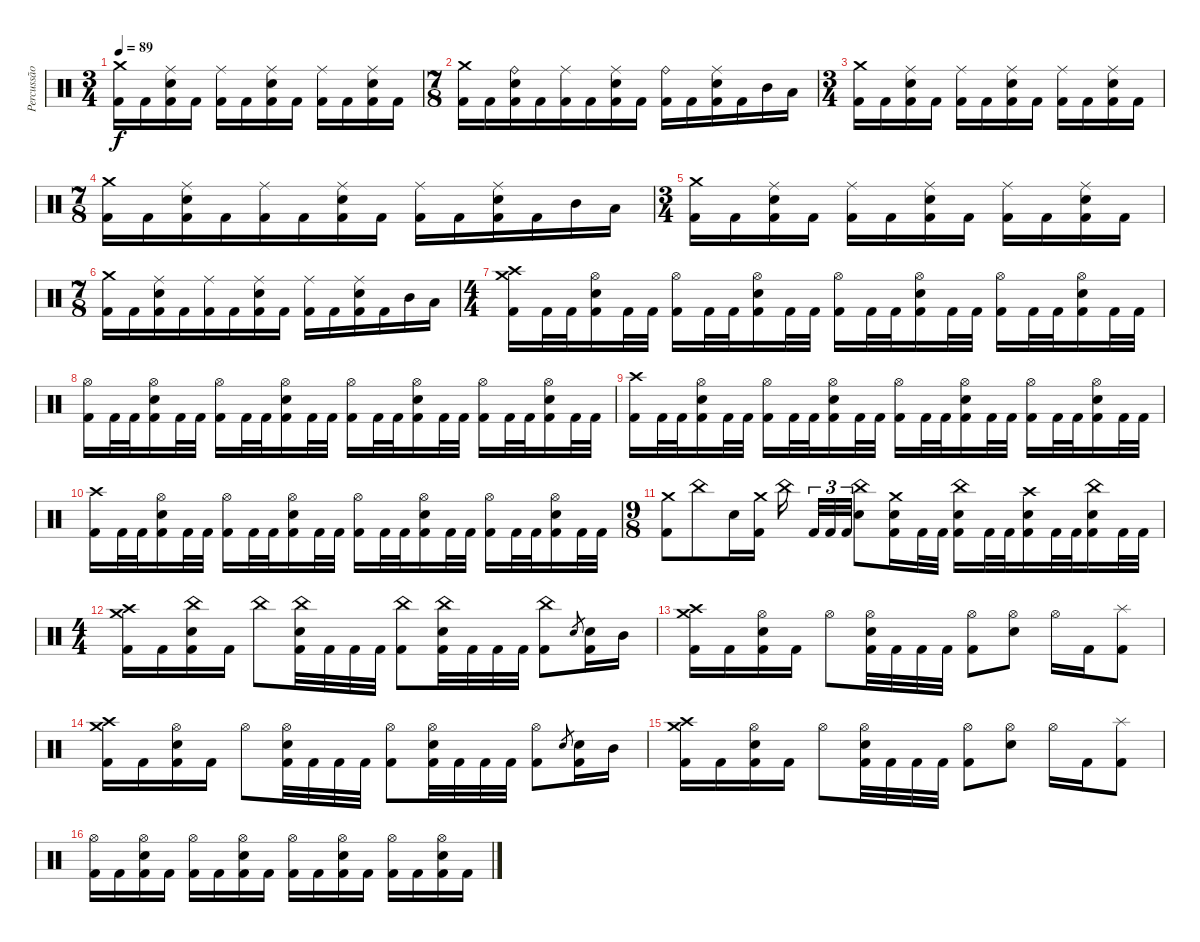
\track ("Percussão" "Percussão") {instrument percussion}
\staff {score}
\articulation defaults
\ts (3 4)
\tempo 89
\clef neutral
\ks c
("Crash medium (hit)" "Kick (hit) 2").16{dy f} "Kick (hit) 2".16 ("Ride (middle)" "Snare (hit) 2" "Kick (hit) 2").16 "Kick (hit) 2".16 ("Ride (middle)" "Kick (hit) 2").16 "Kick (hit) 2".16 ("Ride (middle)" "Snare (hit) 2" "Kick (hit) 2").16 "Kick (hit) 2".16 ("Ride (middle)" "Kick (hit) 2").16 "Kick (hit) 2".16 ("Ride (middle)" "Snare (hit) 2" "Kick (hit) 2").16 "Kick (hit) 2".16 |
\ts (7 8)
("Crash medium (hit)" "Kick (hit) 2").16 "Kick (hit) 2".16 ("Ride (bell)" "Snare (hit) 2" "Kick (hit) 2").16 "Kick (hit) 2".16 ("Ride (middle)" "Kick (hit) 2").16 "Kick (hit) 2".16 ("Ride (middle)" "Snare (hit) 2" "Kick (hit) 2").16 "Kick (hit) 2".16 ("Ride (bell)" "Kick (hit) 2").16 "Kick (hit) 2".16 ("Ride (middle)" "Snare (hit) 2" "Kick (hit) 2").16 "Kick (hit) 2".16 "Mid Tom (hit)".16 "Low Tom (hit)".16 |
\ts (3 4)
("Crash medium (hit)" "Kick (hit) 2").16 "Kick (hit) 2".16 ("Ride (middle)" "Snare (hit) 2" "Kick (hit) 2").16 "Kick (hit) 2".16 ("Ride (middle)" "Kick (hit) 2").16 "Kick (hit) 2".16 ("Ride (middle)" "Snare (hit) 2" "Kick (hit) 2").16 "Kick (hit) 2".16 ("Ride (middle)" "Kick (hit) 2").16 "Kick (hit) 2".16 ("Ride (middle)" "Snare (hit) 2" "Kick (hit) 2").16 "Kick (hit) 2".16 |
\ts (7 8)
("Crash medium (hit)" "Kick (hit) 2").16 "Kick (hit) 2".16 ("Ride (middle)" "Snare (hit) 2" "Kick (hit) 2").16 "Kick (hit) 2".16 ("Ride (middle)" "Kick (hit) 2").16 "Kick (hit) 2".16 ("Ride (middle)" "Snare (hit) 2" "Kick (hit) 2").16 "Kick (hit) 2".16 ("Ride (middle)" "Kick (hit) 2").16 "Kick (hit) 2".16 ("Ride (middle)" "Snare (hit) 2" "Kick (hit) 2").16 "Kick (hit) 2".16 "Mid Tom (hit)".16 "Low Tom (hit)".16 |
\ts (3 4)
("Crash medium (hit)" "Kick (hit) 2").16 "Kick (hit) 2".16 ("Ride (middle)" "Snare (hit) 2" "Kick (hit) 2").16 "Kick (hit) 2".16 ("Ride (middle)" "Kick (hit) 2").16 "Kick (hit) 2".16 ("Ride (middle)" "Snare (hit) 2" "Kick (hit) 2").16 "Kick (hit) 2".16 ("Ride (middle)" "Kick (hit) 2").16 "Kick (hit) 2".16 ("Ride (middle)" "Snare (hit) 2" "Kick (hit) 2").16 "Kick (hit) 2".16 |
\ts (7 8)
("Crash medium (hit)" "Kick (hit) 2").16 "Kick (hit) 2".16 ("Ride (middle)" "Snare (hit) 2" "Kick (hit) 2").16 "Kick (hit) 2".16 ("Ride (middle)" "Kick (hit) 2").16 "Kick (hit) 2".16 ("Ride (middle)" "Snare (hit) 2" "Kick (hit) 2").16 "Kick (hit) 2".16 ("Ride (middle)" "Kick (hit) 2").16 "Kick (hit) 2".16 ("Ride (middle)" "Snare (hit) 2" "Kick (hit) 2").16 "Kick (hit) 2".16 "Mid Tom (hit)".16 "Low Tom (hit)".16 |
\ts (4 4)
("Crash high (hit)" "Crash medium (hit)" "Kick (hit) 2").16 "Kick (hit) 2".32 "Kick (hit) 2".32 ("Hi-Hat (open)" "Snare (hit) 2" "Kick (hit) 2").16 "Kick (hit) 2".32 "Kick (hit) 2".32 ("Hi-Hat (open)" "Kick (hit) 2").16 "Kick (hit) 2".32 "Kick (hit) 2".32 ("Hi-Hat (open)" "Snare (hit) 2" "Kick (hit) 2").16 "Kick (hit) 2".32 "Kick (hit) 2".32 ("Hi-Hat (open)" "Kick (hit) 2").16 "Kick (hit) 2".32 "Kick (hit) 2".32 ("Hi-Hat (open)" "Snare (hit) 2" "Kick (hit) 2").16 "Kick (hit) 2".32 "Kick (hit) 2".32 ("Hi-Hat (open)" "Kick (hit) 2").16 "Kick (hit) 2".32 "Kick (hit) 2".32 ("Hi-Hat (open)" "Snare (hit) 2" "Kick (hit) 2").16 "Kick (hit) 2".32 "Kick (hit) 2".32 |
("Hi-Hat (open)" "Kick (hit) 2").16 "Kick (hit) 2".32 "Kick (hit) 2".32 ("Hi-Hat (open)" "Snare (hit) 2" "Kick (hit) 2").16 "Kick (hit) 2".32 "Kick (hit) 2".32 ("Hi-Hat (open)" "Kick (hit) 2").16 "Kick (hit) 2".32 "Kick (hit) 2".32 ("Hi-Hat (open)" "Snare (hit) 2" "Kick (hit) 2").16 "Kick (hit) 2".32 "Kick (hit) 2".32 ("Hi-Hat (open)" "Kick (hit) 2").16 "Kick (hit) 2".32 "Kick (hit) 2".32 ("Hi-Hat (open)" "Snare (hit) 2" "Kick (hit) 2").16 "Kick (hit) 2".32 "Kick (hit) 2".32 ("Hi-Hat (open)" "Kick (hit) 2").16 "Kick (hit) 2".32 "Kick (hit) 2".32 ("Hi-Hat (open)" "Snare (hit) 2" "Kick (hit) 2").16 "Kick (hit) 2".32 "Kick (hit) 2".32 |
("Crash high (hit)" "Kick (hit) 2").16 "Kick (hit) 2".32 "Kick (hit) 2".32 ("Hi-Hat (open)" "Snare (hit) 2" "Kick (hit) 2").16 "Kick (hit) 2".32 "Kick (hit) 2".32 ("Hi-Hat (open)" "Kick (hit) 2").16 "Kick (hit) 2".32 "Kick (hit) 2".32 ("Hi-Hat (open)" "Snare (hit) 2" "Kick (hit) 2").16 "Kick (hit) 2".32 "Kick (hit) 2".32 ("Hi-Hat (open)" "Kick (hit) 2").16 "Kick (hit) 2".32 "Kick (hit) 2".32 ("Hi-Hat (open)" "Snare (hit) 2" "Kick (hit) 2").16 "Kick (hit) 2".32 "Kick (hit) 2".32 ("Hi-Hat (open)" "Kick (hit) 2").16 "Kick (hit) 2".32 "Kick (hit) 2".32 ("Hi-Hat (open)" "Snare (hit) 2" "Kick (hit) 2").16 "Kick (hit) 2".32 "Kick (hit) 2".32 |
("Crash high (hit)" "Kick (hit) 2").16 "Kick (hit) 2".32 "Kick (hit) 2".32 ("Hi-Hat (open)" "Snare (hit) 2" "Kick (hit) 2").16 "Kick (hit) 2".32 "Kick (hit) 2".32 ("Hi-Hat (open)" "Kick (hit) 2").16 "Kick (hit) 2".32 "Kick (hit) 2".32 ("Hi-Hat (open)" "Snare (hit) 2" "Kick (hit) 2").16 "Kick (hit) 2".32 "Kick (hit) 2".32 ("Hi-Hat (open)" "Kick (hit) 2").16 "Kick (hit) 2".32 "Kick (hit) 2".32 ("Hi-Hat (open)" "Snare (hit) 2" "Kick (hit) 2").16 "Kick (hit) 2".32 "Kick (hit) 2".32 ("Hi-Hat (open)" "Kick (hit) 2").16 "Kick (hit) 2".32 "Kick (hit) 2".32 ("Hi-Hat (open)" "Snare (hit) 2" "Kick (hit) 2").16 "Kick (hit) 2".32 "Kick (hit) 2".32 |
\ts (9 8)
("Crash medium (hit)" "Kick (hit) 2").8 "China (hit)".8 "Snare (hit) 2".16 ("Crash medium (hit)" "Kick (hit) 2").16 "China (hit)".16 "Kick (hit) 2".32{tu (3 2)} "Kick (hit) 2".32{tu (3 2)} "Kick (hit) 2".32{tu (3 2)} ("China (hit)" "Snare (hit) 2").8 ("Crash medium (hit)" "Snare (hit) 2" "Kick (hit) 2").16 "Kick (hit) 2".32 "Kick (hit) 2".32 ("China (hit)" "Snare (hit) 2" "Kick (hit) 2").16 "Kick (hit) 2".32 "Kick (hit) 2".32 ("Crash high (hit)" "Snare (hit) 2" "Kick (hit) 2").16 "Kick (hit) 2".32 "Kick (hit) 2".32 ("China (hit)" "Snare (hit) 2" "Kick (hit) 2").16 "Kick (hit) 2".32 "Kick (hit) 2".32 |
\ts (4 4)
("Crash high (hit)" "Crash medium (hit)" "Kick (hit) 2").16 "Kick (hit) 2".16 ("China (hit)" "Snare (hit) 2" "Kick (hit) 2").16 "Kick (hit) 2".16 "China (hit)".8 ("China (hit)" "Snare (hit) 2" "Kick (hit) 2").32 "Kick (hit) 2".32 "Kick (hit) 2".32 "Kick (hit) 2".32 ("China (hit)" "Kick (hit) 2").8 ("China (hit)" "Snare (hit) 2" "Kick (hit) 2").32 "Kick (hit) 2".32 "Kick (hit) 2".32 "Kick (hit) 2".32 ("China (hit)" "Kick (hit) 2").8 "Snare (hit) 2".8{gr} ("Snare (hit) 2" "Kick (hit) 2").16 "Mid Tom (hit)".16 |
("Crash high (hit)" "Crash medium (hit)" "Kick (hit) 2").16 "Kick (hit) 2".16 ("Hi-Hat (open)" "Snare (hit) 2" "Kick (hit) 2").16 "Kick (hit) 2".16 "Hi-Hat (open)".8 ("Hi-Hat (open)" "Snare (hit) 2" "Kick (hit) 2").32 "Kick (hit) 2".32 "Kick (hit) 2".32 "Kick (hit) 2".32 ("Hi-Hat (open)" "Kick (hit) 2").8 ("Hi-Hat (open)" "Snare (hit) 2").8 "Hi-Hat (open)".16 "Kick (hit) 2".16 ("Splash (hit)" "Kick (hit) 2").8 |
("Crash high (hit)" "Crash medium (hit)" "Kick (hit) 2").16 "Kick (hit) 2".16 ("Hi-Hat (open)" "Snare (hit) 2" "Kick (hit) 2").16 "Kick (hit) 2".16 "Hi-Hat (open)".8 ("Hi-Hat (open)" "Snare (hit) 2" "Kick (hit) 2").32 "Kick (hit) 2".32 "Kick (hit) 2".32 "Kick (hit) 2".32 ("Hi-Hat (open)" "Kick (hit) 2").8 ("Hi-Hat (open)" "Snare (hit) 2" "Kick (hit) 2").32 "Kick (hit) 2".32 "Kick (hit) 2".32 "Kick (hit) 2".32 ("Hi-Hat (open)" "Kick (hit) 2").8 "Snare (hit) 2".8{gr} ("Snare (hit) 2" "Kick (hit) 2").16 "Mid Tom (hit)".16 |
("Crash high (hit)" "Crash medium (hit)" "Kick (hit) 2").16 "Kick (hit) 2".16 ("Hi-Hat (open)" "Snare (hit) 2" "Kick (hit) 2").16 "Kick (hit) 2".16 "Hi-Hat (open)".8 ("Hi-Hat (open)" "Snare (hit) 2" "Kick (hit) 2").32 "Kick (hit) 2".32 "Kick (hit) 2".32 "Kick (hit) 2".32 ("Hi-Hat (open)" "Kick (hit) 2").8 ("Hi-Hat (open)" "Snare (hit) 2").8 "Hi-Hat (open)".16 "Kick (hit) 2".16 ("Splash (hit)" "Kick (hit) 2").8 |
("Hi-Hat (open)" "Kick (hit) 2").16 "Kick (hit) 2".16 ("Hi-Hat (open)" "Snare (hit) 2" "Kick (hit) 2").16 "Kick (hit) 2".16 ("Hi-Hat (open)" "Kick (hit) 2").16 "Kick (hit) 2".16 ("Hi-Hat (open)" "Snare (hit) 2" "Kick (hit) 2").16 "Kick (hit) 2".16 ("Hi-Hat (open)" "Kick (hit) 2").16 "Kick (hit) 2".16 ("Hi-Hat (open)" "Snare (hit) 2" "Kick (hit) 2").16 "Kick (hit) 2".16 ("Hi-Hat (open)" "Kick (hit) 2").16 "Kick (hit) 2".16 ("Hi-Hat (open)" "Snare (hit) 2" "Kick (hit) 2").16 "Kick (hit) 2".16
